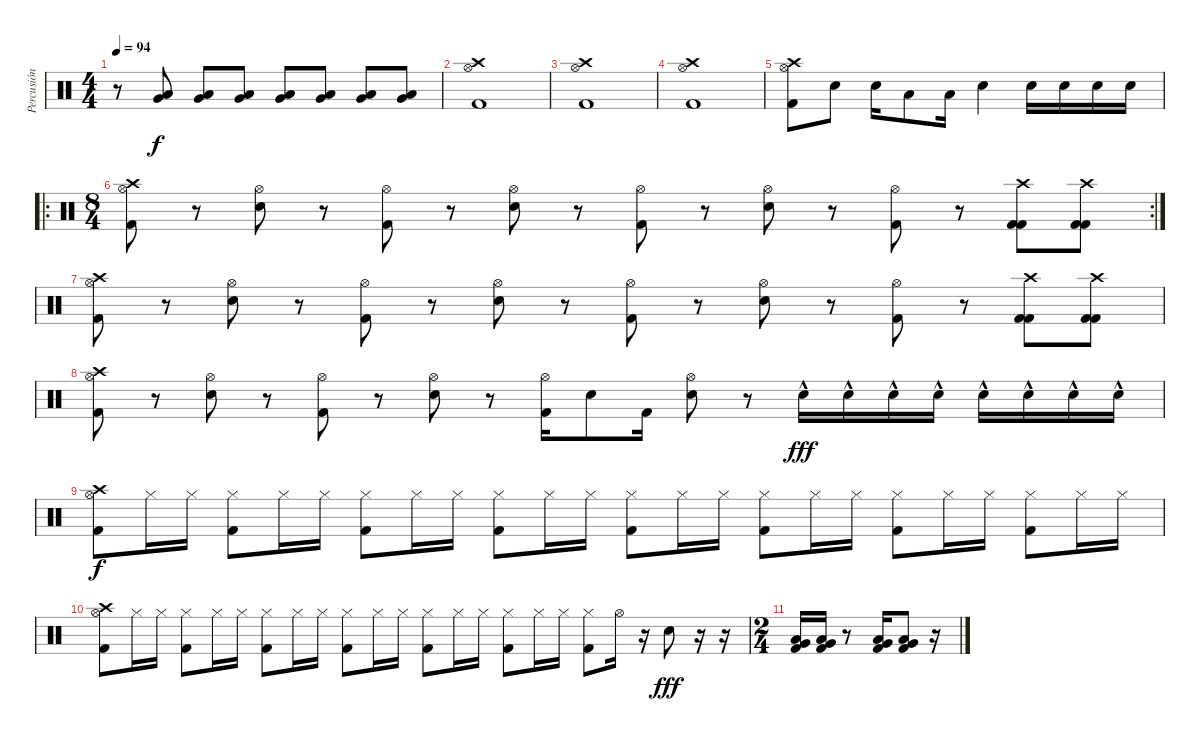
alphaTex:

\track ("Percusión" "Percusión") {instrument percussion}
\staff {score}
\articulation defaults
\ts (4 4)
\tempo 94
\clef neutral
\ks c
r.8{dy f} ("Low Floor Tom (hit)" "Very Low Tom (hit)").8 ("Low Floor Tom (hit)" "Very Low Tom (hit)").8 ("Low Floor Tom (hit)" "Very Low Tom (hit)").8 ("Low Floor Tom (hit)" "Very Low Tom (hit)").8 ("Low Floor Tom (hit)" "Very Low Tom (hit)").8 ("Low Floor Tom (hit)" "Very Low Tom (hit)").8 ("Low Floor Tom (hit)" "Very Low Tom (hit)").8 |
("Crash high (hit)" "Hi-Hat (open)" "Kick (hit) 2").1 |
("Crash high (hit)" "Hi-Hat (open)" "Kick (hit) 2").1 |
("Crash high (hit)" "Hi-Hat (open)" "Kick (hit) 2").1 |
("Crash high (hit)" "Hi-Hat (open)" "Kick (hit) 2").8 "Electric Snare (hit)".8 "Electric Snare (hit)".16 "Low Tom (hit)".8 "Low Tom (hit)".16 "Electric Snare (hit)".4 "Electric Snare (hit)".16 "Electric Snare (hit)".16 "Electric Snare (hit)".16 "Electric Snare (hit)".16 |
\ro
\rc 2
\ts (8 4)
("Crash high (hit)" "Hi-Hat (open)" "Kick (hit) 2").8 r.8 ("Hi-Hat (open)" "Electric Snare (hit)").8 r.8 ("Hi-Hat (open)" "Kick (hit) 2").8 r.8 ("Hi-Hat (open)" "Electric Snare (hit)").8 r.8 ("Hi-Hat (open)" "Kick (hit) 2").8 r.8 ("Hi-Hat (open)" "Electric Snare (hit)").8 r.8 ("Hi-Hat (open)" "Kick (hit) 2").8 r.8 ("Crash high (hit)" "Kick (hit) 2" "Kick (hit) 2").8 ("Crash high (hit)" "Kick (hit) 2" "Kick (hit) 2").8 |
("Crash high (hit)" "Hi-Hat (open)" "Kick (hit) 2").8 r.8 ("Hi-Hat (open)" "Electric Snare (hit)").8 r.8 ("Hi-Hat (open)" "Kick (hit) 2").8 r.8 ("Hi-Hat (open)" "Electric Snare (hit)").8 r.8 ("Hi-Hat (open)" "Kick (hit) 2").8 r.8 ("Hi-Hat (open)" "Electric Snare (hit)").8 r.8 ("Hi-Hat (open)" "Kick (hit) 2").8 r.8 ("Crash high (hit)" "Kick (hit) 2" "Kick (hit) 2").8 ("Crash high (hit)" "Kick (hit) 2" "Kick (hit) 2").8 |
("Crash high (hit)" "Hi-Hat (open)" "Kick (hit) 2").8 r.8 ("Hi-Hat (open)" "Electric Snare (hit)").8 r.8 ("Hi-Hat (open)" "Kick (hit) 2").8 r.8 ("Hi-Hat (open)" "Electric Snare (hit)").8 r.8 ("Hi-Hat (open)" "Kick (hit) 2").16 "Electric Snare (hit)".8 "Kick (hit) 2".16 ("Hi-Hat (open)" "Electric Snare (hit)").8 r.8 "Electric Snare (hit)"{hac}.16{dy fff} "Electric Snare (hit)"{hac}.16 "Electric Snare (hit)"{hac}.16 "Electric Snare (hit)"{hac}.16 "Electric Snare (hit)"{hac}.16 "Electric Snare (hit)"{hac}.16 "Electric Snare (hit)"{hac}.16 "Electric Snare (hit)"{hac}.16 |
("Crash high (hit)" "Hi-Hat (open)" "Kick (hit) 2").8{dy f} "Hi-Hat (closed)".16 "Hi-Hat (closed)".16 ("Hi-Hat (closed)" "Kick (hit) 2").8 "Hi-Hat (closed)".16 "Hi-Hat (closed)".16 ("Hi-Hat (closed)" "Kick (hit) 2").8 "Hi-Hat (closed)".16 "Hi-Hat (closed)".16 ("Hi-Hat (closed)" "Kick (hit) 2").8 "Hi-Hat (closed)".16 "Hi-Hat (closed)".16 ("Hi-Hat (closed)" "Kick (hit) 2").8 "Hi-Hat (closed)".16 "Hi-Hat (closed)".16 ("Hi-Hat (closed)" "Kick (hit) 2").8 "Hi-Hat (closed)".16 "Hi-Hat (closed)".16 ("Hi-Hat (closed)" "Kick (hit) 2").8 "Hi-Hat (closed)".16 "Hi-Hat (closed)".16 ("Hi-Hat (closed)" "Kick (hit) 2").8 "Hi-Hat (closed)".16 "Hi-Hat (closed)".16 |
("Crash high (hit)" "Hi-Hat (open)" "Kick (hit) 2").8 "Hi-Hat (closed)".16 "Hi-Hat (closed)".16 ("Hi-Hat (closed)" "Kick (hit) 2").8 "Hi-Hat (closed)".16 "Hi-Hat (closed)".16 ("Hi-Hat (closed)" "Kick (hit) 2").8 "Hi-Hat (closed)".16 "Hi-Hat (closed)".16 ("Hi-Hat (closed)" "Kick (hit) 2").8 "Hi-Hat (closed)".16 "Hi-Hat (closed)".16 ("Hi-Hat (closed)" "Kick (hit) 2").8 "Hi-Hat (closed)".16 "Hi-Hat (closed)".16 ("Hi-Hat (closed)" "Kick (hit) 2").8 "Hi-Hat (closed)".16 "Hi-Hat (closed)".16 ("Hi-Hat (closed)" "Kick (hit) 2").8 "Hi-Hat (open)".16 r.16 "Electric Snare (hit)".8{dy fff} r.16 r.16 |
\ts (2 4)
("Low Floor Tom (hit)" "Very Low Tom (hit)" "Kick (hit) 2").16 ("Low Floor Tom (hit)" "Very Low Tom (hit)" "Kick (hit) 2").16 r.8 ("Low Floor Tom (hit)" "Very Low Tom (hit)" "Kick (hit) 2").16 ("Low Floor Tom (hit)" "Very Low Tom (hit)" "Kick (hit) 2").8 r.16
